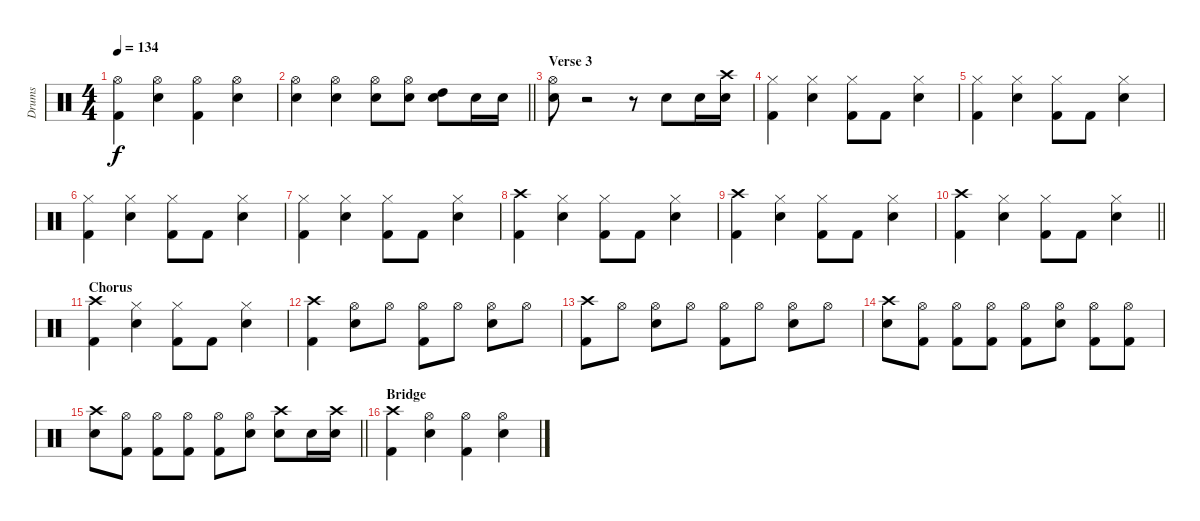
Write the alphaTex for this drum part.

\track ("Drums" "Drums") {instrument percussion}
\staff {score}
\articulation defaults
\ts (4 4)
\tempo 134
\clef neutral
\ks c
("Hi-Hat (open)" "Kick (hit) 2").4{dy f} ("Hi-Hat (open)" "Snare (hit) 2").4 ("Hi-Hat (open)" "Kick (hit) 2").4 ("Hi-Hat (open)" "Snare (hit) 2").4 |
\barLineRight lightlight
("Hi-Hat (open)" "Snare (hit) 2").4 ("Hi-Hat (open)" "Snare (hit) 2").4 ("Hi-Hat (open)" "Snare (hit) 2").8 ("Hi-Hat (open)" "Snare (hit) 2").8 ("High Tom (hit)" "Snare (hit) 2").8 "Snare (hit) 2".16 "Snare (hit) 2".16 |
\section ("" "Verse 3")
("Hi-Hat (open)" "Snare (hit) 2").8 r.2 r.8 "Snare (hit) 2".8 "Snare (hit) 2".16 ("Crash high (hit)" "Snare (hit) 2").16 |
("Hi-Hat (closed)" "Kick (hit) 2").4 ("Hi-Hat (closed)" "Snare (hit) 2").4 ("Hi-Hat (closed)" "Kick (hit) 2").8 "Kick (hit) 2".8 ("Hi-Hat (closed)" "Snare (hit) 2").4 |
("Hi-Hat (closed)" "Kick (hit) 2").4 ("Hi-Hat (closed)" "Snare (hit) 2").4 ("Hi-Hat (closed)" "Kick (hit) 2").8 "Kick (hit) 2".8 ("Hi-Hat (closed)" "Snare (hit) 2").4 |
("Hi-Hat (closed)" "Kick (hit) 2").4 ("Hi-Hat (closed)" "Snare (hit) 2").4 ("Hi-Hat (closed)" "Kick (hit) 2").8 "Kick (hit) 2".8 ("Hi-Hat (closed)" "Snare (hit) 2").4 |
("Hi-Hat (closed)" "Kick (hit) 2").4 ("Hi-Hat (closed)" "Snare (hit) 2").4 ("Hi-Hat (closed)" "Kick (hit) 2").8 "Kick (hit) 2".8 ("Hi-Hat (closed)" "Snare (hit) 2").4 |
("Crash high (hit)" "Kick (hit) 2").4 ("Hi-Hat (closed)" "Snare (hit) 2").4 ("Hi-Hat (closed)" "Kick (hit) 2").8 "Kick (hit) 2".8 ("Hi-Hat (closed)" "Snare (hit) 2").4 |
("Crash high (hit)" "Kick (hit) 2").4 ("Hi-Hat (closed)" "Snare (hit) 2").4 ("Hi-Hat (closed)" "Kick (hit) 2").8 "Kick (hit) 2".8 ("Hi-Hat (closed)" "Snare (hit) 2").4 |
\barLineRight lightlight
("Crash high (hit)" "Kick (hit) 2").4 ("Hi-Hat (closed)" "Snare (hit) 2").4 ("Hi-Hat (closed)" "Kick (hit) 2").8 "Kick (hit) 2".8 ("Hi-Hat (closed)" "Snare (hit) 2").4 |
\section ("" "Chorus")
("Crash high (hit)" "Kick (hit) 2").4 ("Hi-Hat (closed)" "Snare (hit) 2").4 ("Hi-Hat (closed)" "Kick (hit) 2").8 "Kick (hit) 2".8 ("Hi-Hat (closed)" "Snare (hit) 2").4 |
("Crash high (hit)" "Kick (hit) 2").4 ("Hi-Hat (open)" "Snare (hit) 2").8 "Hi-Hat (open)".8 ("Hi-Hat (open)" "Kick (hit) 2").8 "Hi-Hat (open)".8 ("Hi-Hat (open)" "Snare (hit) 2").8 "Hi-Hat (open)".8 |
("Crash high (hit)" "Kick (hit) 2").8 "Hi-Hat (open)".8 ("Hi-Hat (open)" "Snare (hit) 2").8 "Hi-Hat (open)".8 ("Hi-Hat (open)" "Kick (hit) 2").8 "Hi-Hat (open)".8 ("Hi-Hat (open)" "Snare (hit) 2").8 "Hi-Hat (open)".8 |
("Crash high (hit)" "Snare (hit) 2").8 ("Hi-Hat (open)" "Kick (hit) 2").8 ("Hi-Hat (open)" "Kick (hit) 2").8 ("Hi-Hat (open)" "Kick (hit) 2").8 ("Hi-Hat (open)" "Kick (hit) 2").8 ("Hi-Hat (open)" "Snare (hit) 2").8 ("Hi-Hat (open)" "Kick (hit) 2").8 ("Hi-Hat (open)" "Kick (hit) 2").8 |
\barLineRight lightlight
("Crash high (hit)" "Snare (hit) 2").8 ("Hi-Hat (open)" "Kick (hit) 2").8 ("Hi-Hat (open)" "Kick (hit) 2").8 ("Hi-Hat (open)" "Kick (hit) 2").8 ("Hi-Hat (open)" "Kick (hit) 2").8 ("Hi-Hat (open)" "Snare (hit) 2").8 ("Crash high (hit)" "Snare (hit) 2").8 "Snare (hit) 2".16 ("Crash high (hit)" "Snare (hit) 2").16 |
\section ("" "Bridge")
("Crash high (hit)" "Kick (hit) 2").4 ("Hi-Hat (open)" "Snare (hit) 2").4 ("Hi-Hat (open)" "Kick (hit) 2").4 ("Hi-Hat (open)" "Snare (hit) 2").4
